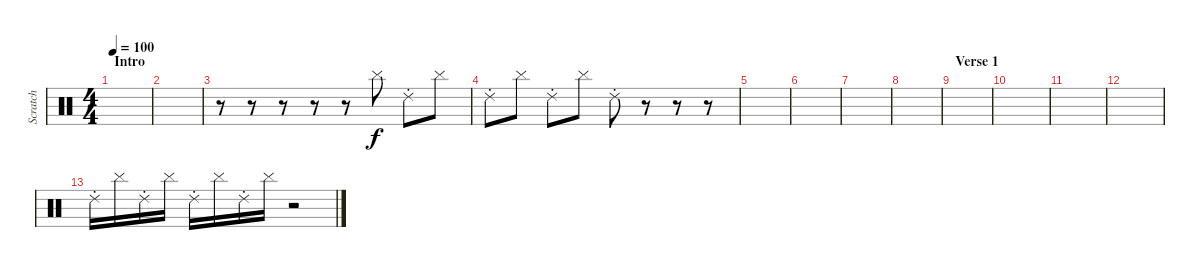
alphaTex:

\track ("Scratch" "Scratch") {instrument percussion}
\staff {score}
\articulation defaults
\ts (4 4)
\section ("" "Intro")
\tempo 100
\clef neutral
\ks c
|
|
r.8 r.8 r.8 r.8 r.8 "Cymbal (hit)".8 "Ride (choke) 2".8 "Cymbal (hit)".8 |
"Ride (choke) 2".8 "Cymbal (hit)".8 "Ride (choke) 2".8 "Cymbal (hit)".8 "Ride (choke) 2".8 r.8 r.8 r.8 |
|
|
|
|
\section ("" "Verse 1")
|
|
|
|
"Ride (choke) 2".16 "Cymbal (hit)".16 "Ride (choke) 2".16 "Cymbal (hit)".16 "Ride (choke) 2".16 "Cymbal (hit)".16 "Ride (choke) 2".16 "Cymbal (hit)".16 r.2
